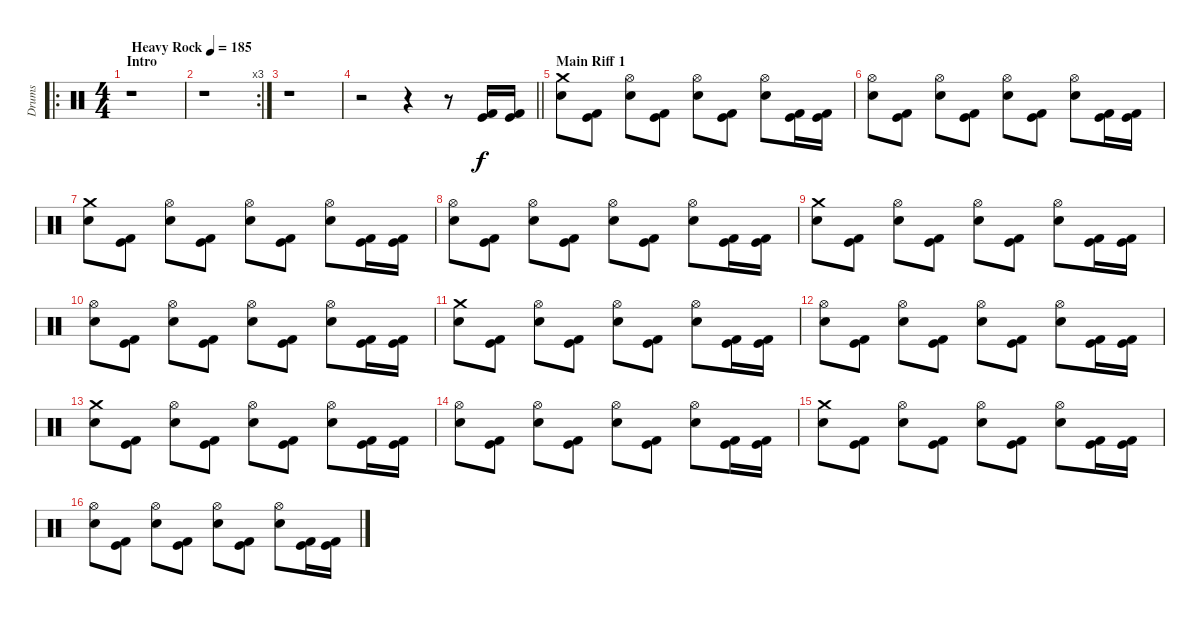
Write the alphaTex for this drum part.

\track ("Drums" "Drums") {instrument percussion}
\staff {score}
\articulation defaults
\ro
\ts (4 4)
\section ("" "Intro")
\tempo (185 "Heavy Rock")
\clef neutral
\ks c
r.1{dy f} |
\rc 3
r.1 |
r.1 |
\barLineRight lightlight
r.2 r.4 r.8 ("Kick (hit) 2" "Kick (hit)").16 ("Kick (hit) 2" "Kick (hit)").16 |
\section ("" "Main Riff 1")
("Crash medium (hit)" "Electric Snare (hit)").8 ("Kick (hit) 2" "Kick (hit)").8 ("Hi-Hat (open)" "Electric Snare (hit)").8 ("Kick (hit) 2" "Kick (hit)").8 ("Hi-Hat (open)" "Electric Snare (hit)").8 ("Kick (hit) 2" "Kick (hit)").8 ("Hi-Hat (open)" "Electric Snare (hit)").8 ("Kick (hit) 2" "Kick (hit)").16 ("Kick (hit) 2" "Kick (hit)").16 |
("Hi-Hat (open)" "Electric Snare (hit)").8 ("Kick (hit) 2" "Kick (hit)").8 ("Hi-Hat (open)" "Electric Snare (hit)").8 ("Kick (hit) 2" "Kick (hit)").8 ("Hi-Hat (open)" "Electric Snare (hit)").8 ("Kick (hit) 2" "Kick (hit)").8 ("Hi-Hat (open)" "Electric Snare (hit)").8 ("Kick (hit) 2" "Kick (hit)").16 ("Kick (hit) 2" "Kick (hit)").16 |
("Crash medium (hit)" "Electric Snare (hit)").8 ("Kick (hit) 2" "Kick (hit)").8 ("Hi-Hat (open)" "Electric Snare (hit)").8 ("Kick (hit) 2" "Kick (hit)").8 ("Hi-Hat (open)" "Electric Snare (hit)").8 ("Kick (hit) 2" "Kick (hit)").8 ("Hi-Hat (open)" "Electric Snare (hit)").8 ("Kick (hit) 2" "Kick (hit)").16 ("Kick (hit) 2" "Kick (hit)").16 |
("Hi-Hat (open)" "Electric Snare (hit)").8 ("Kick (hit) 2" "Kick (hit)").8 ("Hi-Hat (open)" "Electric Snare (hit)").8 ("Kick (hit) 2" "Kick (hit)").8 ("Hi-Hat (open)" "Electric Snare (hit)").8 ("Kick (hit) 2" "Kick (hit)").8 ("Hi-Hat (open)" "Electric Snare (hit)").8 ("Kick (hit) 2" "Kick (hit)").16 ("Kick (hit) 2" "Kick (hit)").16 |
("Crash medium (hit)" "Electric Snare (hit)").8 ("Kick (hit) 2" "Kick (hit)").8 ("Hi-Hat (open)" "Electric Snare (hit)").8 ("Kick (hit) 2" "Kick (hit)").8 ("Hi-Hat (open)" "Electric Snare (hit)").8 ("Kick (hit) 2" "Kick (hit)").8 ("Hi-Hat (open)" "Electric Snare (hit)").8 ("Kick (hit) 2" "Kick (hit)").16 ("Kick (hit) 2" "Kick (hit)").16 |
("Hi-Hat (open)" "Electric Snare (hit)").8 ("Kick (hit) 2" "Kick (hit)").8 ("Hi-Hat (open)" "Electric Snare (hit)").8 ("Kick (hit) 2" "Kick (hit)").8 ("Hi-Hat (open)" "Electric Snare (hit)").8 ("Kick (hit) 2" "Kick (hit)").8 ("Hi-Hat (open)" "Electric Snare (hit)").8 ("Kick (hit) 2" "Kick (hit)").16 ("Kick (hit) 2" "Kick (hit)").16 |
("Crash medium (hit)" "Electric Snare (hit)").8 ("Kick (hit) 2" "Kick (hit)").8 ("Hi-Hat (open)" "Electric Snare (hit)").8 ("Kick (hit) 2" "Kick (hit)").8 ("Hi-Hat (open)" "Electric Snare (hit)").8 ("Kick (hit) 2" "Kick (hit)").8 ("Hi-Hat (open)" "Electric Snare (hit)").8 ("Kick (hit) 2" "Kick (hit)").16 ("Kick (hit) 2" "Kick (hit)").16 |
("Hi-Hat (open)" "Electric Snare (hit)").8 ("Kick (hit) 2" "Kick (hit)").8 ("Hi-Hat (open)" "Electric Snare (hit)").8 ("Kick (hit) 2" "Kick (hit)").8 ("Hi-Hat (open)" "Electric Snare (hit)").8 ("Kick (hit) 2" "Kick (hit)").8 ("Hi-Hat (open)" "Electric Snare (hit)").8 ("Kick (hit) 2" "Kick (hit)").16 ("Kick (hit) 2" "Kick (hit)").16 |
("Crash medium (hit)" "Electric Snare (hit)").8 ("Kick (hit) 2" "Kick (hit)").8 ("Hi-Hat (open)" "Electric Snare (hit)").8 ("Kick (hit) 2" "Kick (hit)").8 ("Hi-Hat (open)" "Electric Snare (hit)").8 ("Kick (hit) 2" "Kick (hit)").8 ("Hi-Hat (open)" "Electric Snare (hit)").8 ("Kick (hit) 2" "Kick (hit)").16 ("Kick (hit) 2" "Kick (hit)").16 |
("Hi-Hat (open)" "Electric Snare (hit)").8 ("Kick (hit) 2" "Kick (hit)").8 ("Hi-Hat (open)" "Electric Snare (hit)").8 ("Kick (hit) 2" "Kick (hit)").8 ("Hi-Hat (open)" "Electric Snare (hit)").8 ("Kick (hit) 2" "Kick (hit)").8 ("Hi-Hat (open)" "Electric Snare (hit)").8 ("Kick (hit) 2" "Kick (hit)").16 ("Kick (hit) 2" "Kick (hit)").16 |
("Crash medium (hit)" "Electric Snare (hit)").8 ("Kick (hit) 2" "Kick (hit)").8 ("Hi-Hat (open)" "Electric Snare (hit)").8 ("Kick (hit) 2" "Kick (hit)").8 ("Hi-Hat (open)" "Electric Snare (hit)").8 ("Kick (hit) 2" "Kick (hit)").8 ("Hi-Hat (open)" "Electric Snare (hit)").8 ("Kick (hit) 2" "Kick (hit)").16 ("Kick (hit) 2" "Kick (hit)").16 |
("Hi-Hat (open)" "Electric Snare (hit)").8 ("Kick (hit) 2" "Kick (hit)").8 ("Hi-Hat (open)" "Electric Snare (hit)").8 ("Kick (hit) 2" "Kick (hit)").8 ("Hi-Hat (open)" "Electric Snare (hit)").8 ("Kick (hit) 2" "Kick (hit)").8 ("Hi-Hat (open)" "Electric Snare (hit)").8 ("Kick (hit) 2" "Kick (hit)").16 ("Kick (hit) 2" "Kick (hit)").16
